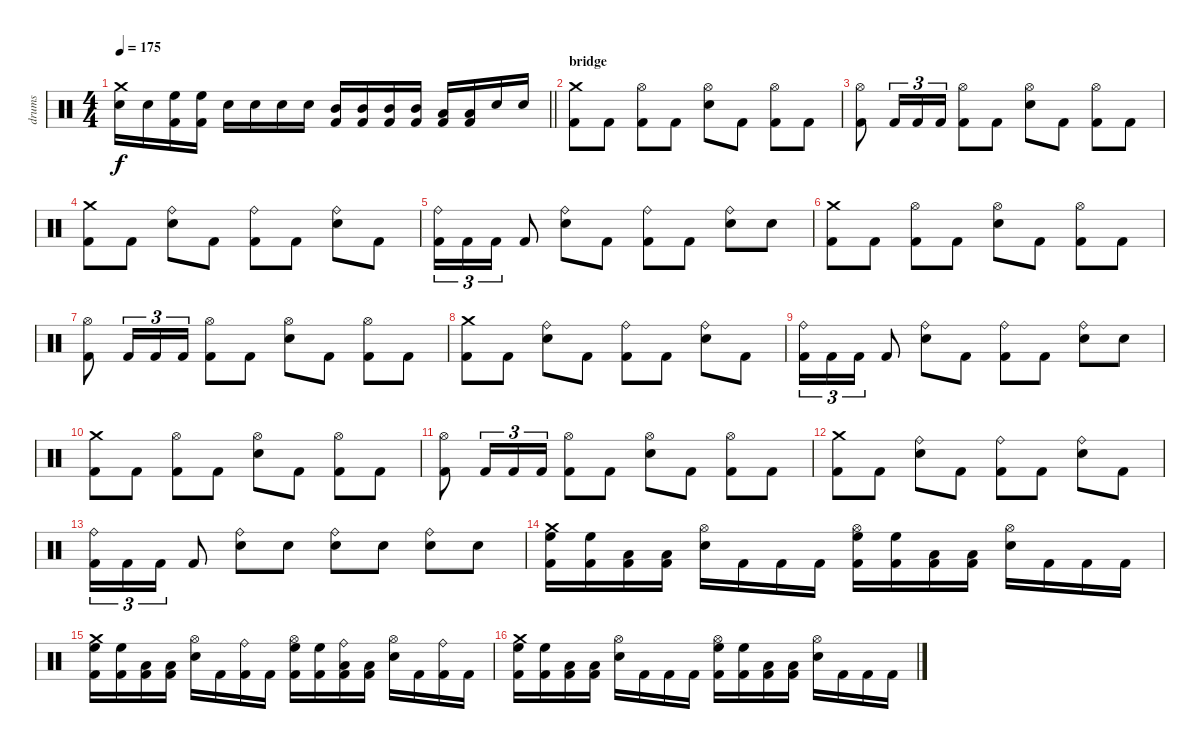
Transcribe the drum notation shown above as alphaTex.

\track ("drums" "drums") {instrument percussion}
\staff {score}
\articulation defaults
\ts (4 4)
\tempo 175
\clef neutral
\barLineRight lightlight
\ks c
("Crash medium (hit)" "Snare (hit) 2").16{dy f} "Snare (hit) 2".16 ("High Floor Tom (hit)" "Kick (hit) 2").16 ("High Floor Tom (hit)" "Kick (hit) 2").16 "Snare (hit) 2".16 "Snare (hit) 2".16 "Snare (hit) 2".16 "Snare (hit) 2".16 ("Mid Tom (hit)" "Kick (hit) 2").16 ("Mid Tom (hit)" "Kick (hit) 2").16 ("Mid Tom (hit)" "Kick (hit) 2").16 ("Mid Tom (hit)" "Kick (hit) 2").16 ("Low Tom (hit)" "Kick (hit) 2").16 ("Low Tom (hit)" "Kick (hit) 2").16 "Snare (hit) 2".16 "Snare (hit) 2".16 |
\section ("" "bridge")
("Crash medium (hit)" "Kick (hit) 2").8 "Kick (hit) 2".8 ("Hi-Hat (open)" "Kick (hit) 2").8 "Kick (hit) 2".8 ("Hi-Hat (open)" "Snare (hit) 2").8 "Kick (hit) 2".8 ("Hi-Hat (open)" "Kick (hit) 2").8 "Kick (hit) 2".8 |
("Hi-Hat (open)" "Kick (hit) 2").8 "Kick (hit) 2".16{tu (3 2)} "Kick (hit) 2".16{tu (3 2)} "Kick (hit) 2".16{tu (3 2)} ("Hi-Hat (open)" "Kick (hit) 2").8 "Kick (hit) 2".8 ("Hi-Hat (open)" "Snare (hit) 2").8 "Kick (hit) 2".8 ("Hi-Hat (open)" "Kick (hit) 2").8 "Kick (hit) 2".8 |
("Crash medium (hit)" "Kick (hit) 2").8 "Kick (hit) 2".8 ("Ride (bell)" "Snare (hit) 2").8 "Kick (hit) 2".8 ("Ride (bell)" "Kick (hit) 2").8 "Kick (hit) 2".8 ("Ride (bell)" "Snare (hit) 2").8 "Kick (hit) 2".8 |
("Ride (bell)" "Kick (hit) 2").16{tu (3 2)} "Kick (hit) 2".16{tu (3 2)} "Kick (hit) 2".16{tu (3 2)} "Kick (hit) 2".8 ("Ride (bell)" "Snare (hit) 2").8 "Kick (hit) 2".8 ("Ride (bell)" "Kick (hit) 2").8 "Kick (hit) 2".8 ("Ride (bell)" "Snare (hit) 2").8 "Snare (hit) 2".8 |
("Crash medium (hit)" "Kick (hit) 2").8 "Kick (hit) 2".8 ("Hi-Hat (open)" "Kick (hit) 2").8 "Kick (hit) 2".8 ("Hi-Hat (open)" "Snare (hit) 2").8 "Kick (hit) 2".8 ("Hi-Hat (open)" "Kick (hit) 2").8 "Kick (hit) 2".8 |
("Hi-Hat (open)" "Kick (hit) 2").8 "Kick (hit) 2".16{tu (3 2)} "Kick (hit) 2".16{tu (3 2)} "Kick (hit) 2".16{tu (3 2)} ("Hi-Hat (open)" "Kick (hit) 2").8 "Kick (hit) 2".8 ("Hi-Hat (open)" "Snare (hit) 2").8 "Kick (hit) 2".8 ("Hi-Hat (open)" "Kick (hit) 2").8 "Kick (hit) 2".8 |
("Crash medium (hit)" "Kick (hit) 2").8 "Kick (hit) 2".8 ("Ride (bell)" "Snare (hit) 2").8 "Kick (hit) 2".8 ("Ride (bell)" "Kick (hit) 2").8 "Kick (hit) 2".8 ("Ride (bell)" "Snare (hit) 2").8 "Kick (hit) 2".8 |
("Ride (bell)" "Kick (hit) 2").16{tu (3 2)} "Kick (hit) 2".16{tu (3 2)} "Kick (hit) 2".16{tu (3 2)} "Kick (hit) 2".8 ("Ride (bell)" "Snare (hit) 2").8 "Kick (hit) 2".8 ("Ride (bell)" "Kick (hit) 2").8 "Kick (hit) 2".8 ("Ride (bell)" "Snare (hit) 2").8 "Snare (hit) 2".8 |
("Crash medium (hit)" "Kick (hit) 2").8 "Kick (hit) 2".8 ("Hi-Hat (open)" "Kick (hit) 2").8 "Kick (hit) 2".8 ("Hi-Hat (open)" "Snare (hit) 2").8 "Kick (hit) 2".8 ("Hi-Hat (open)" "Kick (hit) 2").8 "Kick (hit) 2".8 |
("Hi-Hat (open)" "Kick (hit) 2").8 "Kick (hit) 2".16{tu (3 2)} "Kick (hit) 2".16{tu (3 2)} "Kick (hit) 2".16{tu (3 2)} ("Hi-Hat (open)" "Kick (hit) 2").8 "Kick (hit) 2".8 ("Hi-Hat (open)" "Snare (hit) 2").8 "Kick (hit) 2".8 ("Hi-Hat (open)" "Kick (hit) 2").8 "Kick (hit) 2".8 |
("Crash medium (hit)" "Kick (hit) 2").8 "Kick (hit) 2".8 ("Ride (bell)" "Snare (hit) 2").8 "Kick (hit) 2".8 ("Ride (bell)" "Kick (hit) 2").8 "Kick (hit) 2".8 ("Ride (bell)" "Snare (hit) 2").8 "Kick (hit) 2".8 |
("Ride (bell)" "Kick (hit) 2").16{tu (3 2)} "Kick (hit) 2".16{tu (3 2)} "Kick (hit) 2".16{tu (3 2)} "Kick (hit) 2".8 ("Ride (bell)" "Snare (hit) 2").8 "Snare (hit) 2".8 ("Ride (bell)" "Snare (hit) 2").8 "Snare (hit) 2".8 ("Ride (bell)" "Snare (hit) 2").8 "Snare (hit) 2".8 |
("Crash medium (hit)" "High Floor Tom (hit)" "Kick (hit) 2").16 ("High Floor Tom (hit)" "Kick (hit) 2").16 ("Low Tom (hit)" "Kick (hit) 2").16 ("Low Tom (hit)" "Kick (hit) 2").16 ("Hi-Hat (open)" "Snare (hit) 2").16 "Kick (hit) 2".16 "Kick (hit) 2".16 "Kick (hit) 2".16 ("Hi-Hat (open)" "High Floor Tom (hit)" "Kick (hit) 2").16 ("High Floor Tom (hit)" "Kick (hit) 2").16 ("Low Tom (hit)" "Kick (hit) 2").16 ("Low Tom (hit)" "Kick (hit) 2").16 ("Hi-Hat (open)" "Snare (hit) 2").16 "Kick (hit) 2".16 "Kick (hit) 2".16 "Kick (hit) 2".16 |
("Crash medium (hit)" "High Floor Tom (hit)" "Kick (hit) 2").16 ("High Floor Tom (hit)" "Kick (hit) 2").16 ("Low Tom (hit)" "Kick (hit) 2").16 ("Low Tom (hit)" "Kick (hit) 2").16 ("Hi-Hat (open)" "Snare (hit) 2").16 "Kick (hit) 2".16 ("Ride (bell)" "Kick (hit) 2").16 "Kick (hit) 2".16 ("Hi-Hat (open)" "High Floor Tom (hit)" "Kick (hit) 2").16 ("High Floor Tom (hit)" "Kick (hit) 2").16 ("Ride (bell)" "Low Tom (hit)" "Kick (hit) 2").16 ("Low Tom (hit)" "Kick (hit) 2").16 ("Hi-Hat (open)" "Snare (hit) 2").16 "Kick (hit) 2".16 ("Ride (bell)" "Kick (hit) 2").16 "Kick (hit) 2".16 |
("Crash medium (hit)" "High Floor Tom (hit)" "Kick (hit) 2").16 ("High Floor Tom (hit)" "Kick (hit) 2").16 ("Low Tom (hit)" "Kick (hit) 2").16 ("Low Tom (hit)" "Kick (hit) 2").16 ("Hi-Hat (open)" "Snare (hit) 2").16 "Kick (hit) 2".16 "Kick (hit) 2".16 "Kick (hit) 2".16 ("Hi-Hat (open)" "High Floor Tom (hit)" "Kick (hit) 2").16 ("High Floor Tom (hit)" "Kick (hit) 2").16 ("Low Tom (hit)" "Kick (hit) 2").16 ("Low Tom (hit)" "Kick (hit) 2").16 ("Hi-Hat (open)" "Snare (hit) 2").16 "Kick (hit) 2".16 "Kick (hit) 2".16 "Kick (hit) 2".16
